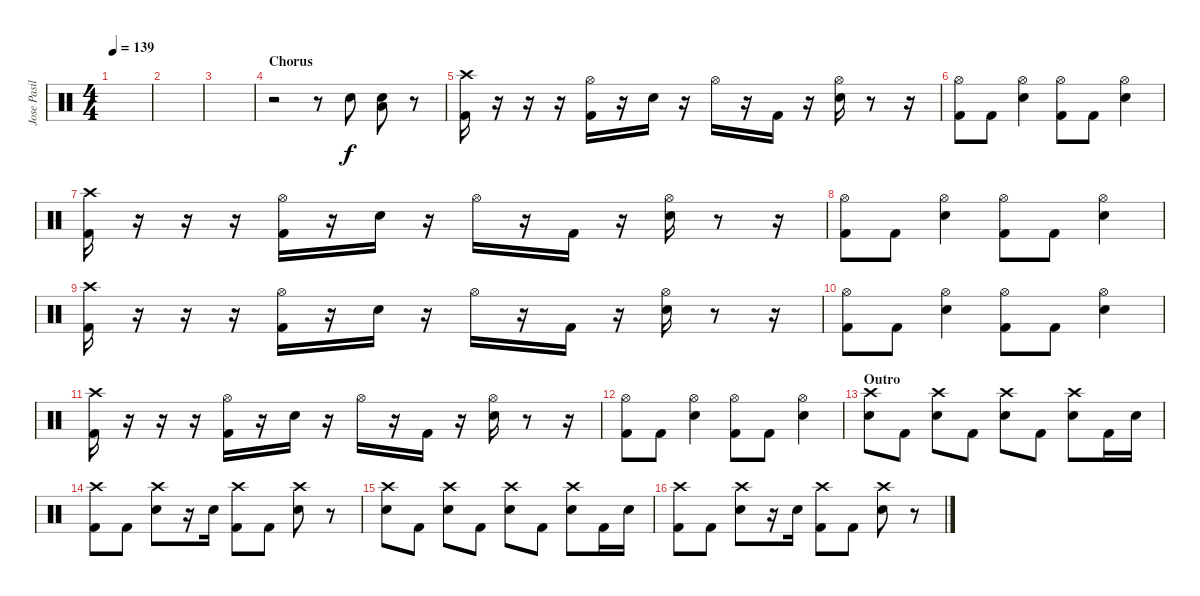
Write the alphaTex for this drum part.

\track ("Jose Pasillas - Drums" "Jose Pasil") {instrument percussion}
\staff {score}
\articulation defaults
\ts (4 4)
\tempo 139
\clef neutral
\ks c
|
|
|
\section ("" "Chorus")
r.2 r.8 "Electric Snare (hit)".8{dy f} ("Low Tom (hit)" "Electric Snare (hit)").8 r.8 |
("Crash high (hit)" "Kick (hit) 2").16 r.16 r.16 r.16 ("Hi-Hat (open)" "Kick (hit) 2").16 r.16 "Electric Snare (hit)".16 r.16 "Hi-Hat (open)".16 r.16 "Kick (hit) 2".16 r.16 ("Hi-Hat (open)" "Electric Snare (hit)").16 r.8 r.16 |
("Hi-Hat (open)" "Kick (hit) 2").8 "Kick (hit) 2".8 ("Hi-Hat (open)" "Electric Snare (hit)").4 ("Hi-Hat (open)" "Kick (hit) 2").8 "Kick (hit) 2".8 ("Hi-Hat (open)" "Electric Snare (hit)").4 |
("Crash high (hit)" "Kick (hit) 2").16 r.16 r.16 r.16 ("Hi-Hat (open)" "Kick (hit) 2").16 r.16 "Electric Snare (hit)".16 r.16 "Hi-Hat (open)".16 r.16 "Kick (hit) 2".16 r.16 ("Hi-Hat (open)" "Electric Snare (hit)").16 r.8 r.16 |
("Hi-Hat (open)" "Kick (hit) 2").8 "Kick (hit) 2".8 ("Hi-Hat (open)" "Electric Snare (hit)").4 ("Hi-Hat (open)" "Kick (hit) 2").8 "Kick (hit) 2".8 ("Hi-Hat (open)" "Electric Snare (hit)").4 |
("Crash high (hit)" "Kick (hit) 2").16 r.16 r.16 r.16 ("Hi-Hat (open)" "Kick (hit) 2").16 r.16 "Electric Snare (hit)".16 r.16 "Hi-Hat (open)".16 r.16 "Kick (hit) 2".16 r.16 ("Hi-Hat (open)" "Electric Snare (hit)").16 r.8 r.16 |
("Hi-Hat (open)" "Kick (hit) 2").8 "Kick (hit) 2".8 ("Hi-Hat (open)" "Electric Snare (hit)").4 ("Hi-Hat (open)" "Kick (hit) 2").8 "Kick (hit) 2".8 ("Hi-Hat (open)" "Electric Snare (hit)").4 |
("Crash high (hit)" "Kick (hit) 2").16 r.16 r.16 r.16 ("Hi-Hat (open)" "Kick (hit) 2").16 r.16 "Electric Snare (hit)".16 r.16 "Hi-Hat (open)".16 r.16 "Kick (hit) 2".16 r.16 ("Hi-Hat (open)" "Electric Snare (hit)").16 r.8 r.16 |
("Hi-Hat (open)" "Kick (hit) 2").8 "Kick (hit) 2".8 ("Hi-Hat (open)" "Electric Snare (hit)").4 ("Hi-Hat (open)" "Kick (hit) 2").8 "Kick (hit) 2".8 ("Hi-Hat (open)" "Electric Snare (hit)").4 |
\section ("" "Outro")
("Crash high (hit)" "Electric Snare (hit)").8 "Kick (hit) 2".8 ("Crash high (hit)" "Electric Snare (hit)").8 "Kick (hit) 2".8 ("Crash high (hit)" "Electric Snare (hit)").8 "Kick (hit) 2".8 ("Crash high (hit)" "Electric Snare (hit)").8 "Kick (hit) 2".16 "Electric Snare (hit)".16 |
("Crash high (hit)" "Kick (hit) 2").8 "Kick (hit) 2".8 ("Crash high (hit)" "Electric Snare (hit)").8 r.16 "Electric Snare (hit)".16 ("Crash high (hit)" "Kick (hit) 2").8 "Kick (hit) 2".8 ("Crash high (hit)" "Electric Snare (hit)").8 r.8 |
("Crash high (hit)" "Electric Snare (hit)").8 "Kick (hit) 2".8 ("Crash high (hit)" "Electric Snare (hit)").8 "Kick (hit) 2".8 ("Crash high (hit)" "Electric Snare (hit)").8 "Kick (hit) 2".8 ("Crash high (hit)" "Electric Snare (hit)").8 "Kick (hit) 2".16 "Electric Snare (hit)".16 |
("Crash high (hit)" "Kick (hit) 2").8 "Kick (hit) 2".8 ("Crash high (hit)" "Electric Snare (hit)").8 r.16 "Electric Snare (hit)".16 ("Crash high (hit)" "Kick (hit) 2").8 "Kick (hit) 2".8 ("Crash high (hit)" "Electric Snare (hit)").8 r.8
